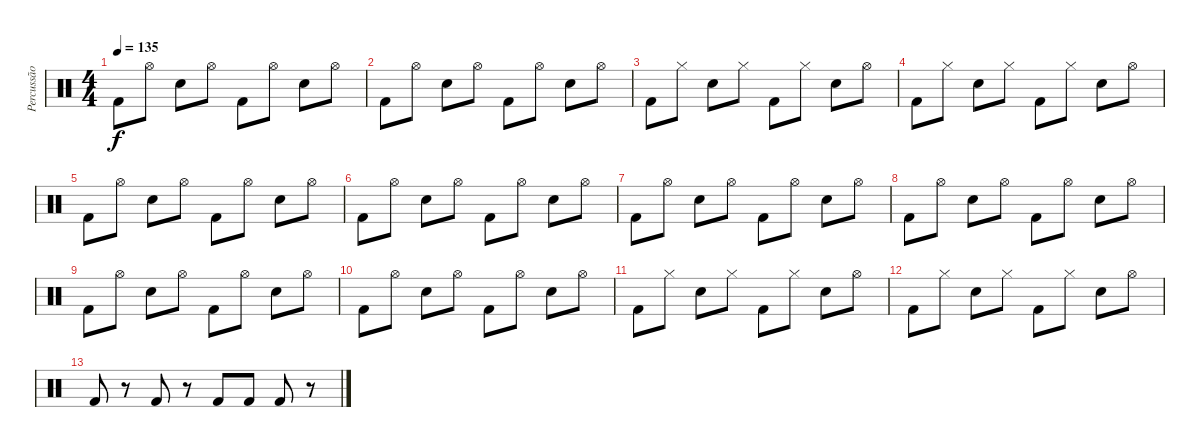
\track ("Percussão" "Percussão") {instrument percussion}
\staff {score}
\articulation defaults
\ts (4 4)
\tempo 135
\clef neutral
\ks c "Kick (hit) 2".8{dy f} "Hi-Hat (open)".8 "Electric Snare (hit)".8 "Hi-Hat (open)".8 "Kick (hit) 2".8 "Hi-Hat (open)".8 "Electric Snare (hit)".8 "Hi-Hat (open)".8
|
"Kick (hit) 2".8 "Hi-Hat (open)".8 "Electric Snare (hit)".8 "Hi-Hat (open)".8 "Kick (hit) 2".8 "Hi-Hat (open)".8 "Electric Snare (hit)".8 "Hi-Hat (open)".8 |
"Kick (hit) 2".8 "Hi-Hat (closed)".8 "Electric Snare (hit)".8 "Hi-Hat (closed)".8 "Kick (hit) 2".8 "Hi-Hat (closed)".8 "Electric Snare (hit)".8 "Hi-Hat (open)".8 |
"Kick (hit) 2".8 "Hi-Hat (closed)".8 "Electric Snare (hit)".8 "Hi-Hat (closed)".8 "Kick (hit) 2".8 "Hi-Hat (closed)".8 "Electric Snare (hit)".8 "Hi-Hat (open)".8 |
"Kick (hit) 2".8 "Hi-Hat (open)".8 "Electric Snare (hit)".8 "Hi-Hat (open)".8 "Kick (hit) 2".8 "Hi-Hat (open)".8 "Electric Snare (hit)".8 "Hi-Hat (open)".8 |
"Kick (hit) 2".8 "Hi-Hat (open)".8 "Electric Snare (hit)".8 "Hi-Hat (open)".8 "Kick (hit) 2".8 "Hi-Hat (open)".8 "Electric Snare (hit)".8 "Hi-Hat (open)".8 |
"Kick (hit) 2".8 "Hi-Hat (open)".8 "Electric Snare (hit)".8 "Hi-Hat (open)".8 "Kick (hit) 2".8 "Hi-Hat (open)".8 "Electric Snare (hit)".8 "Hi-Hat (open)".8 |
"Kick (hit) 2".8 "Hi-Hat (open)".8 "Electric Snare (hit)".8 "Hi-Hat (open)".8 "Kick (hit) 2".8 "Hi-Hat (open)".8 "Electric Snare (hit)".8 "Hi-Hat (open)".8 |
"Kick (hit) 2".8 "Hi-Hat (open)".8 "Electric Snare (hit)".8 "Hi-Hat (open)".8 "Kick (hit) 2".8 "Hi-Hat (open)".8 "Electric Snare (hit)".8 "Hi-Hat (open)".8 |
"Kick (hit) 2".8 "Hi-Hat (open)".8 "Electric Snare (hit)".8 "Hi-Hat (open)".8 "Kick (hit) 2".8 "Hi-Hat (open)".8 "Electric Snare (hit)".8 "Hi-Hat (open)".8 |
"Kick (hit) 2".8 "Hi-Hat (closed)".8 "Electric Snare (hit)".8 "Hi-Hat (closed)".8 "Kick (hit) 2".8 "Hi-Hat (closed)".8 "Electric Snare (hit)".8 "Hi-Hat (open)".8 |
"Kick (hit) 2".8 "Hi-Hat (closed)".8 "Electric Snare (hit)".8 "Hi-Hat (closed)".8 "Kick (hit) 2".8 "Hi-Hat (closed)".8 "Electric Snare (hit)".8 "Hi-Hat (open)".8 |
"Kick (hit) 2".8 r.8 "Kick (hit) 2".8 r.8 "Kick (hit) 2".8 "Kick (hit) 2".8 "Kick (hit) 2".8 r.8
